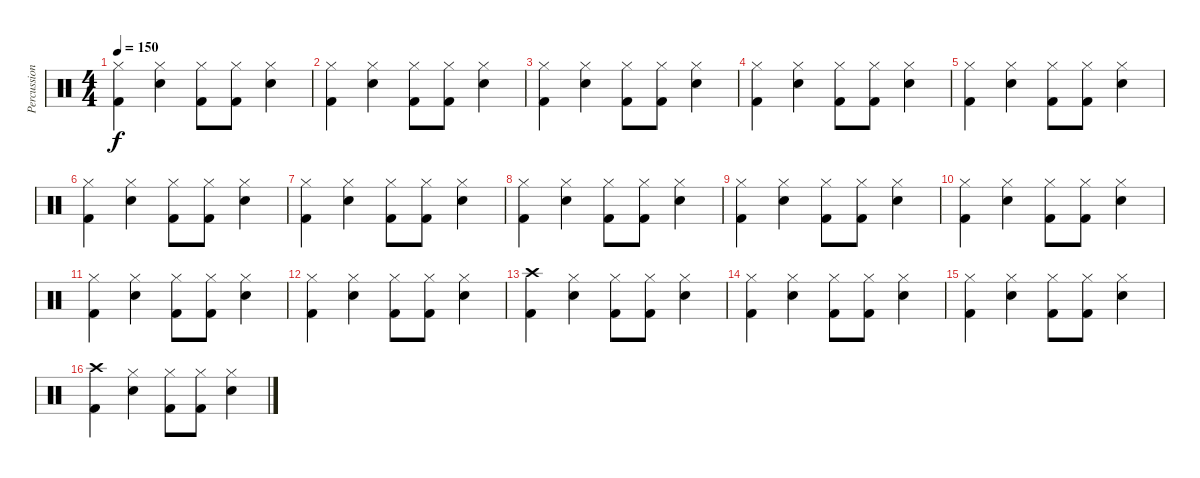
\track ("Percussion" "Percussion") {instrument percussion}
\staff {score}
\articulation defaults
\ts (4 4)
\tempo 150
\clef neutral
\ks c
("Hi-Hat (closed)" "Kick (hit) 2").4{dy f} ("Hi-Hat (closed)" "Electric Snare (hit)").4 ("Hi-Hat (closed)" "Kick (hit) 2").8 ("Hi-Hat (closed)" "Kick (hit) 2").8 ("Hi-Hat (closed)" "Electric Snare (hit)").4 |
("Hi-Hat (closed)" "Kick (hit) 2").4 ("Hi-Hat (closed)" "Electric Snare (hit)").4 ("Hi-Hat (closed)" "Kick (hit) 2").8 ("Hi-Hat (closed)" "Kick (hit) 2").8 ("Hi-Hat (closed)" "Electric Snare (hit)").4 |
("Hi-Hat (closed)" "Kick (hit) 2").4 ("Hi-Hat (closed)" "Electric Snare (hit)").4 ("Hi-Hat (closed)" "Kick (hit) 2").8 ("Hi-Hat (closed)" "Kick (hit) 2").8 ("Hi-Hat (closed)" "Electric Snare (hit)").4 |
("Hi-Hat (closed)" "Kick (hit) 2").4 ("Hi-Hat (closed)" "Electric Snare (hit)").4 ("Hi-Hat (closed)" "Kick (hit) 2").8 ("Hi-Hat (closed)" "Kick (hit) 2").8 ("Hi-Hat (closed)" "Electric Snare (hit)").4 |
("Hi-Hat (closed)" "Kick (hit) 2").4 ("Hi-Hat (closed)" "Electric Snare (hit)").4 ("Hi-Hat (closed)" "Kick (hit) 2").8 ("Hi-Hat (closed)" "Kick (hit) 2").8 ("Hi-Hat (closed)" "Electric Snare (hit)").4 |
("Hi-Hat (closed)" "Kick (hit) 2").4 ("Hi-Hat (closed)" "Electric Snare (hit)").4 ("Hi-Hat (closed)" "Kick (hit) 2").8 ("Hi-Hat (closed)" "Kick (hit) 2").8 ("Hi-Hat (closed)" "Electric Snare (hit)").4 |
("Hi-Hat (closed)" "Kick (hit) 2").4 ("Hi-Hat (closed)" "Electric Snare (hit)").4 ("Hi-Hat (closed)" "Kick (hit) 2").8 ("Hi-Hat (closed)" "Kick (hit) 2").8 ("Hi-Hat (closed)" "Electric Snare (hit)").4 |
("Hi-Hat (closed)" "Kick (hit) 2").4 ("Hi-Hat (closed)" "Electric Snare (hit)").4 ("Hi-Hat (closed)" "Kick (hit) 2").8 ("Hi-Hat (closed)" "Kick (hit) 2").8 ("Hi-Hat (closed)" "Electric Snare (hit)").4 |
("Hi-Hat (closed)" "Kick (hit) 2").4 ("Hi-Hat (closed)" "Electric Snare (hit)").4 ("Hi-Hat (closed)" "Kick (hit) 2").8 ("Hi-Hat (closed)" "Kick (hit) 2").8 ("Hi-Hat (closed)" "Electric Snare (hit)").4 |
("Hi-Hat (closed)" "Kick (hit) 2").4 ("Hi-Hat (closed)" "Electric Snare (hit)").4 ("Hi-Hat (closed)" "Kick (hit) 2").8 ("Hi-Hat (closed)" "Kick (hit) 2").8 ("Hi-Hat (closed)" "Electric Snare (hit)").4 |
("Hi-Hat (closed)" "Kick (hit) 2").4 ("Hi-Hat (closed)" "Electric Snare (hit)").4 ("Hi-Hat (closed)" "Kick (hit) 2").8 ("Hi-Hat (closed)" "Kick (hit) 2").8 ("Hi-Hat (closed)" "Electric Snare (hit)").4 |
("Hi-Hat (closed)" "Kick (hit) 2").4 ("Hi-Hat (closed)" "Electric Snare (hit)").4 ("Hi-Hat (closed)" "Kick (hit) 2").8 ("Hi-Hat (closed)" "Kick (hit) 2").8 ("Hi-Hat (closed)" "Electric Snare (hit)").4 |
("Crash high (hit)" "Kick (hit) 2").4 ("Hi-Hat (closed)" "Electric Snare (hit)").4 ("Hi-Hat (closed)" "Kick (hit) 2").8 ("Hi-Hat (closed)" "Kick (hit) 2").8 ("Hi-Hat (closed)" "Electric Snare (hit)").4 |
("Hi-Hat (closed)" "Kick (hit) 2").4 ("Hi-Hat (closed)" "Electric Snare (hit)").4 ("Hi-Hat (closed)" "Kick (hit) 2").8 ("Hi-Hat (closed)" "Kick (hit) 2").8 ("Hi-Hat (closed)" "Electric Snare (hit)").4 |
("Hi-Hat (closed)" "Kick (hit) 2").4 ("Hi-Hat (closed)" "Electric Snare (hit)").4 ("Hi-Hat (closed)" "Kick (hit) 2").8 ("Hi-Hat (closed)" "Kick (hit) 2").8 ("Hi-Hat (closed)" "Electric Snare (hit)").4 |
("Crash high (hit)" "Kick (hit) 2").4 ("Hi-Hat (closed)" "Electric Snare (hit)").4 ("Hi-Hat (closed)" "Kick (hit) 2").8 ("Hi-Hat (closed)" "Kick (hit) 2").8 ("Hi-Hat (closed)" "Electric Snare (hit)").4
